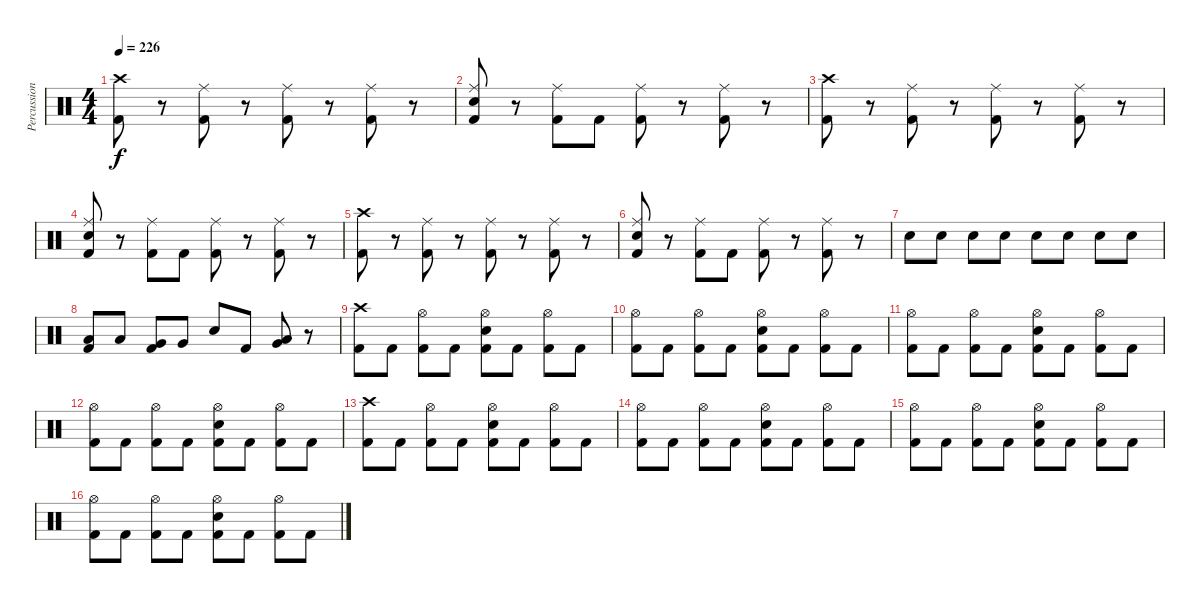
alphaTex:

\track ("Percussion" "Percussion") {instrument percussion}
\staff {score}
\articulation defaults
\ts (4 4)
\tempo 226
\clef neutral
\ks c
("Crash high (hit)" "Kick (hit) 2").8{dy f} r.8 ("Ride (middle)" "Kick (hit) 2").8 r.8 ("Ride (middle)" "Kick (hit) 2").8 r.8 ("Ride (middle)" "Kick (hit) 2").8 r.8 |
("Ride (middle)" "Snare (hit) 2" "Kick (hit) 2").8 r.8 ("Ride (middle)" "Kick (hit) 2").8 "Kick (hit) 2".8 ("Ride (middle)" "Kick (hit) 2").8 r.8 ("Ride (middle)" "Kick (hit) 2").8 r.8 |
("Crash high (hit)" "Kick (hit) 2").8 r.8 ("Ride (middle)" "Kick (hit) 2").8 r.8 ("Ride (middle)" "Kick (hit) 2").8 r.8 ("Ride (middle)" "Kick (hit) 2").8 r.8 |
("Ride (middle)" "Snare (hit) 2" "Kick (hit) 2").8 r.8 ("Ride (middle)" "Kick (hit) 2").8 "Kick (hit) 2".8 ("Ride (middle)" "Kick (hit) 2").8 r.8 ("Ride (middle)" "Kick (hit) 2").8 r.8 |
("Crash high (hit)" "Kick (hit) 2").8 r.8 ("Ride (middle)" "Kick (hit) 2").8 r.8 ("Ride (middle)" "Kick (hit) 2").8 r.8 ("Ride (middle)" "Kick (hit) 2").8 r.8 |
("Ride (middle)" "Snare (hit) 2" "Kick (hit) 2").8 r.8 ("Ride (middle)" "Kick (hit) 2").8 "Kick (hit) 2".8 ("Ride (middle)" "Kick (hit) 2").8 r.8 ("Ride (middle)" "Kick (hit) 2").8 r.8 |
"Snare (hit) 2".8 "Snare (hit) 2".8 "Snare (hit) 2".8 "Snare (hit) 2".8 "Snare (hit) 2".8 "Snare (hit) 2".8 "Snare (hit) 2".8 "Snare (hit) 2".8 |
("Low Tom (hit)" "Kick (hit) 2").8 "Low Tom (hit)".8 ("Very Low Tom (hit)" "Kick (hit) 2").8 "Very Low Tom (hit)".8 "Snare (hit) 2".8 "Kick (hit) 2".8 ("Low Floor Tom (hit)" "Very Low Tom (hit)").8 r.8 |
("Crash high (hit)" "Kick (hit) 2").8 "Kick (hit) 2".8 ("Hi-Hat (open)" "Kick (hit) 2").8 "Kick (hit) 2".8 ("Hi-Hat (open)" "Snare (hit) 2" "Kick (hit) 2").8 "Kick (hit) 2".8 ("Hi-Hat (open)" "Kick (hit) 2").8 "Kick (hit) 2".8 |
("Hi-Hat (open)" "Kick (hit) 2").8 "Kick (hit) 2".8 ("Hi-Hat (open)" "Kick (hit) 2").8 "Kick (hit) 2".8 ("Hi-Hat (open)" "Snare (hit) 2" "Kick (hit) 2").8 "Kick (hit) 2".8 ("Hi-Hat (open)" "Kick (hit) 2").8 "Kick (hit) 2".8 |
("Hi-Hat (open)" "Kick (hit) 2").8 "Kick (hit) 2".8 ("Hi-Hat (open)" "Kick (hit) 2").8 "Kick (hit) 2".8 ("Hi-Hat (open)" "Snare (hit) 2" "Kick (hit) 2").8 "Kick (hit) 2".8 ("Hi-Hat (open)" "Kick (hit) 2").8 "Kick (hit) 2".8 |
("Hi-Hat (open)" "Kick (hit) 2").8 "Kick (hit) 2".8 ("Hi-Hat (open)" "Kick (hit) 2").8 "Kick (hit) 2".8 ("Hi-Hat (open)" "Snare (hit) 2" "Kick (hit) 2").8 "Kick (hit) 2".8 ("Hi-Hat (open)" "Kick (hit) 2").8 "Kick (hit) 2".8 |
("Crash high (hit)" "Kick (hit) 2").8 "Kick (hit) 2".8 ("Hi-Hat (open)" "Kick (hit) 2").8 "Kick (hit) 2".8 ("Hi-Hat (open)" "Snare (hit) 2" "Kick (hit) 2").8 "Kick (hit) 2".8 ("Hi-Hat (open)" "Kick (hit) 2").8 "Kick (hit) 2".8 |
("Hi-Hat (open)" "Kick (hit) 2").8 "Kick (hit) 2".8 ("Hi-Hat (open)" "Kick (hit) 2").8 "Kick (hit) 2".8 ("Hi-Hat (open)" "Snare (hit) 2" "Kick (hit) 2").8 "Kick (hit) 2".8 ("Hi-Hat (open)" "Kick (hit) 2").8 "Kick (hit) 2".8 |
("Hi-Hat (open)" "Kick (hit) 2").8 "Kick (hit) 2".8 ("Hi-Hat (open)" "Kick (hit) 2").8 "Kick (hit) 2".8 ("Hi-Hat (open)" "Snare (hit) 2" "Kick (hit) 2").8 "Kick (hit) 2".8 ("Hi-Hat (open)" "Kick (hit) 2").8 "Kick (hit) 2".8 |
("Hi-Hat (open)" "Kick (hit) 2").8 "Kick (hit) 2".8 ("Hi-Hat (open)" "Kick (hit) 2").8 "Kick (hit) 2".8 ("Hi-Hat (open)" "Snare (hit) 2" "Kick (hit) 2").8 "Kick (hit) 2".8 ("Hi-Hat (open)" "Kick (hit) 2").8 "Kick (hit) 2".8
